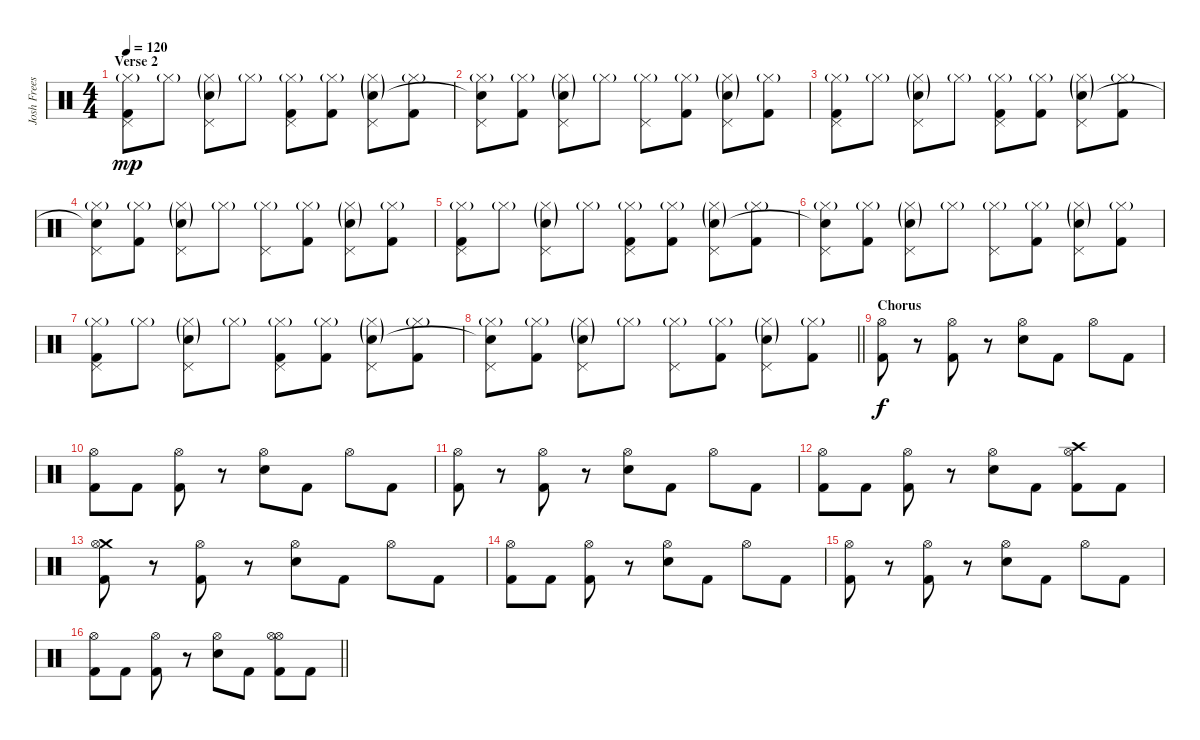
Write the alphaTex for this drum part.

\track ("Josh Freese" "Josh Frees") {instrument percussion}
\staff {score}
\articulation defaults
\ts (4 4)
\section ("" "Verse 2")
\tempo 120
\clef neutral
\ks c
("Pedal Hi-Hat (hit)" "Hi-Hat (closed)"{g} "Kick (hit) 2").8{dy mp} "Hi-Hat (closed)"{g}.8 ("Pedal Hi-Hat (hit)" "Hi-Hat (closed)"{g} "Snare (hit) 2"{g}).8 "Hi-Hat (closed)"{g}.8 ("Pedal Hi-Hat (hit)" "Hi-Hat (closed)"{g} "Kick (hit) 2").8 ("Hi-Hat (closed)"{g} "Kick (hit) 2").8 ("Pedal Hi-Hat (hit)" "Hi-Hat (closed)"{g} "Snare (hit) 2"{g}).8 ("Hi-Hat (closed)"{g} "Kick (hit) 2").8 |
("Pedal Hi-Hat (hit)" "Hi-Hat (closed)"{g} "Snare (hit)"{t}).8 ("Hi-Hat (closed)"{g} "Kick (hit) 2").8 ("Pedal Hi-Hat (hit)" "Hi-Hat (closed)"{g} "Snare (hit) 2"{g}).8 "Hi-Hat (closed)"{g}.8 ("Pedal Hi-Hat (hit)" "Hi-Hat (closed)"{g}).8 ("Hi-Hat (closed)"{g} "Kick (hit) 2").8 ("Pedal Hi-Hat (hit)" "Hi-Hat (closed)"{g} "Snare (hit) 2"{g}).8 ("Hi-Hat (closed)"{g} "Kick (hit) 2").8 |
("Pedal Hi-Hat (hit)" "Hi-Hat (closed)"{g} "Kick (hit) 2").8 "Hi-Hat (closed)"{g}.8 ("Pedal Hi-Hat (hit)" "Hi-Hat (closed)"{g} "Snare (hit) 2"{g}).8 "Hi-Hat (closed)"{g}.8 ("Pedal Hi-Hat (hit)" "Hi-Hat (closed)"{g} "Kick (hit) 2").8 ("Hi-Hat (closed)"{g} "Kick (hit) 2").8 ("Pedal Hi-Hat (hit)" "Hi-Hat (closed)"{g} "Snare (hit) 2"{g}).8 ("Hi-Hat (closed)"{g} "Kick (hit) 2").8 |
("Pedal Hi-Hat (hit)" "Hi-Hat (closed)"{g} "Snare (hit)"{t}).8 ("Hi-Hat (closed)"{g} "Kick (hit) 2").8 ("Pedal Hi-Hat (hit)" "Hi-Hat (closed)"{g} "Snare (hit) 2"{g}).8 "Hi-Hat (closed)"{g}.8 ("Pedal Hi-Hat (hit)" "Hi-Hat (closed)"{g}).8 ("Hi-Hat (closed)"{g} "Kick (hit) 2").8 ("Pedal Hi-Hat (hit)" "Hi-Hat (closed)"{g} "Snare (hit) 2"{g}).8 ("Hi-Hat (closed)"{g} "Kick (hit) 2").8 |
("Pedal Hi-Hat (hit)" "Hi-Hat (closed)"{g} "Kick (hit) 2").8 "Hi-Hat (closed)"{g}.8 ("Pedal Hi-Hat (hit)" "Hi-Hat (closed)"{g} "Snare (hit) 2"{g}).8 "Hi-Hat (closed)"{g}.8 ("Pedal Hi-Hat (hit)" "Hi-Hat (closed)"{g} "Kick (hit) 2").8 ("Hi-Hat (closed)"{g} "Kick (hit) 2").8 ("Pedal Hi-Hat (hit)" "Hi-Hat (closed)"{g} "Snare (hit) 2"{g}).8 ("Hi-Hat (closed)"{g} "Kick (hit) 2").8 |
("Pedal Hi-Hat (hit)" "Hi-Hat (closed)"{g} "Snare (hit)"{t}).8 ("Hi-Hat (closed)"{g} "Kick (hit) 2").8 ("Pedal Hi-Hat (hit)" "Hi-Hat (closed)"{g} "Snare (hit) 2"{g}).8 "Hi-Hat (closed)"{g}.8 ("Pedal Hi-Hat (hit)" "Hi-Hat (closed)"{g}).8 ("Hi-Hat (closed)"{g} "Kick (hit) 2").8 ("Pedal Hi-Hat (hit)" "Hi-Hat (closed)"{g} "Snare (hit) 2"{g}).8 ("Hi-Hat (closed)"{g} "Kick (hit) 2").8 |
("Pedal Hi-Hat (hit)" "Hi-Hat (closed)"{g} "Kick (hit) 2").8 "Hi-Hat (closed)"{g}.8 ("Pedal Hi-Hat (hit)" "Hi-Hat (closed)"{g} "Snare (hit) 2"{g}).8 "Hi-Hat (closed)"{g}.8 ("Pedal Hi-Hat (hit)" "Hi-Hat (closed)"{g} "Kick (hit) 2").8 ("Hi-Hat (closed)"{g} "Kick (hit) 2").8 ("Pedal Hi-Hat (hit)" "Hi-Hat (closed)"{g} "Snare (hit) 2"{g}).8 ("Hi-Hat (closed)"{g} "Kick (hit) 2").8 |
\barLineRight lightlight
("Pedal Hi-Hat (hit)" "Hi-Hat (closed)"{g} "Snare (hit)"{t}).8 ("Hi-Hat (closed)"{g} "Kick (hit) 2").8 ("Pedal Hi-Hat (hit)" "Hi-Hat (closed)"{g} "Snare (hit) 2"{g}).8 "Hi-Hat (closed)"{g}.8 ("Pedal Hi-Hat (hit)" "Hi-Hat (closed)"{g}).8 ("Hi-Hat (closed)"{g} "Kick (hit) 2").8 ("Pedal Hi-Hat (hit)" "Hi-Hat (closed)"{g} "Snare (hit) 2"{g}).8 ("Hi-Hat (closed)"{g} "Kick (hit) 2").8 |
\section ("" "Chorus")
("Hi-Hat (open)" "Kick (hit) 2").8{dy f} r.8 ("Hi-Hat (open)" "Kick (hit) 2").8 r.8 ("Hi-Hat (open)" "Snare (hit) 2").8 "Kick (hit) 2".8 "Hi-Hat (open)".8 "Kick (hit) 2".8 |
("Hi-Hat (open)" "Kick (hit) 2").8 "Kick (hit) 2".8 ("Hi-Hat (open)" "Kick (hit) 2").8 r.8 ("Hi-Hat (open)" "Snare (hit) 2").8 "Kick (hit) 2".8 "Hi-Hat (open)".8 "Kick (hit) 2".8 |
("Hi-Hat (open)" "Kick (hit) 2").8 r.8 ("Hi-Hat (open)" "Kick (hit) 2").8 r.8 ("Hi-Hat (open)" "Snare (hit) 2").8 "Kick (hit) 2".8 "Hi-Hat (open)".8 "Kick (hit) 2".8 |
("Hi-Hat (open)" "Kick (hit) 2").8 "Kick (hit) 2".8 ("Hi-Hat (open)" "Kick (hit) 2").8 r.8 ("Hi-Hat (open)" "Snare (hit) 2").8 "Kick (hit) 2".8 ("Crash high (hit)" "Hi-Hat (open)" "Kick (hit) 2").8 "Kick (hit) 2".8 |
("Crash medium (hit)" "Hi-Hat (open)" "Kick (hit) 2").8 r.8 ("Hi-Hat (open)" "Kick (hit) 2").8 r.8 ("Hi-Hat (open)" "Snare (hit) 2").8 "Kick (hit) 2".8 "Hi-Hat (open)".8 "Kick (hit) 2".8 |
("Hi-Hat (open)" "Kick (hit) 2").8 "Kick (hit) 2".8 ("Hi-Hat (open)" "Kick (hit) 2").8 r.8 ("Hi-Hat (open)" "Snare (hit) 2").8 "Kick (hit) 2".8 "Hi-Hat (open)".8 "Kick (hit) 2".8 |
("Hi-Hat (open)" "Kick (hit) 2").8 r.8 ("Hi-Hat (open)" "Kick (hit) 2").8 r.8 ("Hi-Hat (open)" "Snare (hit) 2").8 "Kick (hit) 2".8 "Hi-Hat (open)".8 "Kick (hit) 2".8 |
\barLineRight lightlight
("Hi-Hat (open)" "Kick (hit) 2").8 "Kick (hit) 2".8 ("Hi-Hat (open)" "Kick (hit) 2").8 r.8 ("Hi-Hat (open)" "Snare (hit) 2").8 "Kick (hit) 2".8 ("Hi-Hat (open)" "Hi-Hat (open)" "Kick (hit) 2").8 "Kick (hit) 2".8
